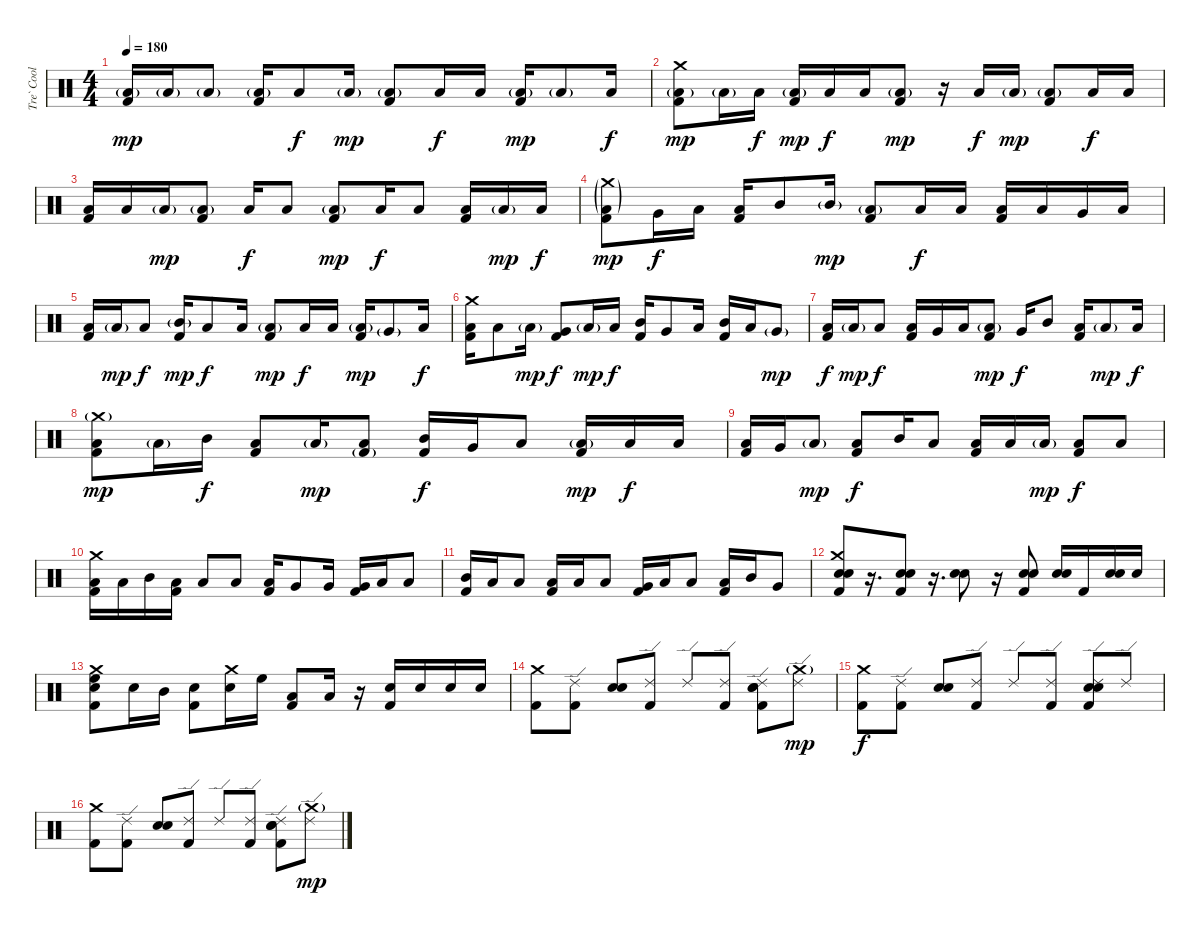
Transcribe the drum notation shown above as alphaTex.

\track ("Tre` Cool (Drums)" "Tre` Cool ") {instrument percussion}
\staff {score}
\articulation defaults
\ts (4 4)
\tempo 180
\clef neutral
\ks c
("Low Tom (hit)"{g} "Kick (hit) 2").16{dy mp} "Low Tom (hit)"{g}.16 "Low Tom (hit)"{g}.8 ("Low Tom (hit)"{g} "Kick (hit) 2").16 "Low Tom (hit)".8{dy f} "Low Tom (hit)"{g}.16{dy mp} ("Low Tom (hit)"{g} "Kick (hit) 2").8 "Low Tom (hit)".16{dy f} "Low Tom (hit)".16 ("Low Tom (hit)"{g} "Kick (hit) 2").16{dy mp} "Low Tom (hit)"{g}.8 "Low Tom (hit)".16{dy f} |
("Crash medium (hit)" "Low Tom (hit)"{g} "Kick (hit) 2").8{dy mp} "Low Tom (hit)"{g}.16 "Low Tom (hit)".16{dy f} ("Low Tom (hit)"{g} "Kick (hit) 2").16{dy mp} "Low Tom (hit)".16{dy f} "Low Tom (hit)".16 ("Low Tom (hit)"{g} "Kick (hit) 2").8{dy mp} r.16 "Low Tom (hit)".16{dy f} "Low Tom (hit)"{g}.16{dy mp} ("Low Tom (hit)"{g} "Kick (hit) 2").8 "Low Tom (hit)".16{dy f} "Low Tom (hit)".16 |
("Low Tom (hit)" "Kick (hit) 2").16 "Low Tom (hit)".16 "Low Tom (hit)"{g}.16{dy mp} ("Low Tom (hit)"{g} "Kick (hit) 2").8 "Low Tom (hit)".16{dy f} "Low Tom (hit)".8 ("Low Tom (hit)"{g} "Kick (hit) 2").8{dy mp} "Low Tom (hit)".16{dy f} "Low Tom (hit)".8 ("Low Tom (hit)" "Kick (hit) 2").16 "Low Tom (hit)"{g}.16{dy mp} "Low Tom (hit)".16{dy f} |
("Crash medium (hit)"{g} "Low Tom (hit)"{g} "Kick (hit) 2").8{dy mp} "Very Low Tom (hit)".16{dy f} "Low Tom (hit)".16 ("Low Tom (hit)" "Kick (hit) 2").16 "Mid Tom (hit)".8 "Mid Tom (hit)"{g}.16{dy mp} ("Low Tom (hit)"{g} "Kick (hit) 2").8 "Low Tom (hit)".16{dy f} "Low Tom (hit)".16 ("Low Tom (hit)" "Kick (hit) 2").16 "Low Tom (hit)".16 "Very Low Tom (hit)".16 "Low Tom (hit)".16 |
("Low Tom (hit)" "Kick (hit) 2").16 "Low Tom (hit)"{g}.16{dy mp} "Low Tom (hit)".8{dy f} ("Mid Tom (hit)"{g} "Kick (hit) 2").16{dy mp} "Low Tom (hit)".8{dy f} "Low Tom (hit)".16 ("Low Tom (hit)"{g} "Kick (hit) 2").8{dy mp} "Low Tom (hit)".16{dy f} "Low Tom (hit)".16 ("Low Tom (hit)"{g} "Kick (hit) 2").16{dy mp} "Very Low Tom (hit)"{g}.8 "Low Tom (hit)".16{dy f} |
("Crash medium (hit)" "Low Tom (hit)" "Kick (hit) 2").16 "Low Tom (hit)".8 "Low Tom (hit)"{g}.16{dy mp} ("Very Low Tom (hit)" "Kick (hit) 2").8{dy f} "Low Tom (hit)"{g}.16{dy mp} "Low Tom (hit)".16{dy f} ("Mid Tom (hit)" "Kick (hit) 2").16 "Very Low Tom (hit)".8 "Low Tom (hit)".16 ("Mid Tom (hit)" "Kick (hit) 2").16 "Low Tom (hit)".16 "Very Low Tom (hit)"{g}.8{dy mp} |
("Low Tom (hit)" "Kick (hit) 2").16{dy f} "Low Tom (hit)"{g}.16{dy mp} "Low Tom (hit)".8{dy f} ("Low Tom (hit)" "Kick (hit) 2").16 "Very Low Tom (hit)".16 "Low Tom (hit)".16 ("Low Tom (hit)"{g} "Kick (hit) 2").8{dy mp} "Very Low Tom (hit)".16{dy f} "Mid Tom (hit)".8 ("Low Tom (hit)" "Kick (hit) 2").16 "Low Tom (hit)"{g}.8{dy mp} "Low Tom (hit)".16{dy f} |
("Crash medium (hit)"{g} "Low Tom (hit)" "Kick (hit) 2").8{dy mp} "Low Tom (hit)"{g}.16 "Mid Tom (hit)".16{dy f} ("Low Tom (hit)" "Kick (hit) 2").8 "Low Tom (hit)"{g}.16{dy mp} ("Low Tom (hit)" "Kick (hit) 2"{g}).8 ("Mid Tom (hit)" "Kick (hit) 2").16{dy f} "Very Low Tom (hit)".16 "Low Tom (hit)".8 ("Low Tom (hit)"{g} "Kick (hit) 2").16{dy mp} "Low Tom (hit)".16{dy f} "Low Tom (hit)".16 |
("Low Tom (hit)" "Kick (hit) 2").16 "Very Low Tom (hit)".16 "Low Tom (hit)"{g}.8{dy mp} ("Low Tom (hit)" "Kick (hit) 2").8{dy f} "Mid Tom (hit)".16 "Low Tom (hit)".8 ("Low Tom (hit)" "Kick (hit) 2").16 "Low Tom (hit)".16 "Low Tom (hit)"{g}.16{dy mp} ("Low Tom (hit)" "Kick (hit) 2").8{dy f} "Low Tom (hit)".8 |
("Crash medium (hit)" "Low Tom (hit)" "Kick (hit) 2").16 "Low Tom (hit)".16 "Mid Tom (hit)".16 ("Low Tom (hit)" "Kick (hit) 2").16 "Low Tom (hit)".8 "Low Tom (hit)".8 ("Low Tom (hit)" "Kick (hit) 2").16 "Very Low Tom (hit)".8 "Very Low Tom (hit)".16 ("Very Low Tom (hit)" "Kick (hit) 2").16 "Low Tom (hit)".16 "Low Tom (hit)".8 |
("Mid Tom (hit)" "Kick (hit) 2").16 "Low Tom (hit)".16 "Low Tom (hit)".8 ("Low Tom (hit)" "Kick (hit) 2").16 "Low Tom (hit)".16 "Low Tom (hit)".8 ("Very Low Tom (hit)" "Kick (hit) 2").16 "Low Tom (hit)".16 "Low Tom (hit)".8 ("Low Tom (hit)" "Kick (hit) 2").16 "Mid Tom (hit)".16 "Very Low Tom (hit)".8 |
("Crash medium (hit)" "Snare (hit) 2" "Electric Snare (hit)" "Kick (hit) 2").8 r.16{d} ("Snare (hit) 2" "Electric Snare (hit)" "Kick (hit) 2").8 r.16{d} ("Snare (hit) 2" "Electric Snare (hit)").8 r.16 ("Snare (hit) 2" "Electric Snare (hit)" "Kick (hit) 2").8 ("Snare (hit) 2" "Electric Snare (hit)").16 "Kick (hit) 2".16 ("Snare (hit) 2" "Electric Snare (hit)").16 "Snare (hit) 2".16 |
("Crash medium (hit)" "High Floor Tom (hit)" "Electric Snare (hit)" "Kick (hit) 2").8 "Snare (hit) 2".16 "Mid Tom (hit)".16 ("Snare (hit) 2" "Kick (hit) 2").8 ("Crash medium (hit)" "Snare (hit) 2").16 "High Floor Tom (hit)".16 ("Low Tom (hit)" "Kick (hit) 2").8 "Low Floor Tom (hit)".16 r.16 ("Snare (hit) 2" "Kick (hit) 2").16 "Snare (hit) 2".16 "Snare (hit) 2".16 "Snare (hit) 2".16 |
("Crash medium (hit)" "Kick (hit) 2").8 ("Ride (edge) 2" "Kick (hit) 2").8 ("Snare (hit) 2" "Electric Snare (hit)").8 ("Ride (edge) 2" "Kick (hit) 2").8 "Ride (edge) 2".8 ("Ride (edge) 2" "Kick (hit) 2").8 ("Ride (edge) 2" "Snare (hit) 2" "Electric Snare (hit)" "Kick (hit) 2").8 ("Crash medium (hit)"{g} "Ride (edge) 2").8{dy mp} |
("Crash medium (hit)" "Kick (hit) 2").8{dy f} ("Ride (edge) 2" "Kick (hit) 2").8 ("Snare (hit) 2" "Electric Snare (hit)").8 ("Ride (edge) 2" "Kick (hit) 2").8 "Ride (edge) 2".8 ("Ride (edge) 2" "Kick (hit) 2").8 ("Ride (edge) 2" "Snare (hit) 2" "Electric Snare (hit)" "Kick (hit) 2").8 "Ride (edge) 2".8 |
("Crash medium (hit)" "Kick (hit) 2").8 ("Ride (edge) 2" "Kick (hit) 2").8 ("Snare (hit) 2" "Electric Snare (hit)").8 ("Ride (edge) 2" "Kick (hit) 2").8 "Ride (edge) 2".8 ("Ride (edge) 2" "Kick (hit) 2").8 ("Ride (edge) 2" "Snare (hit) 2" "Electric Snare (hit)" "Kick (hit) 2").8 ("Crash medium (hit)"{g} "Ride (edge) 2").8{dy mp}
